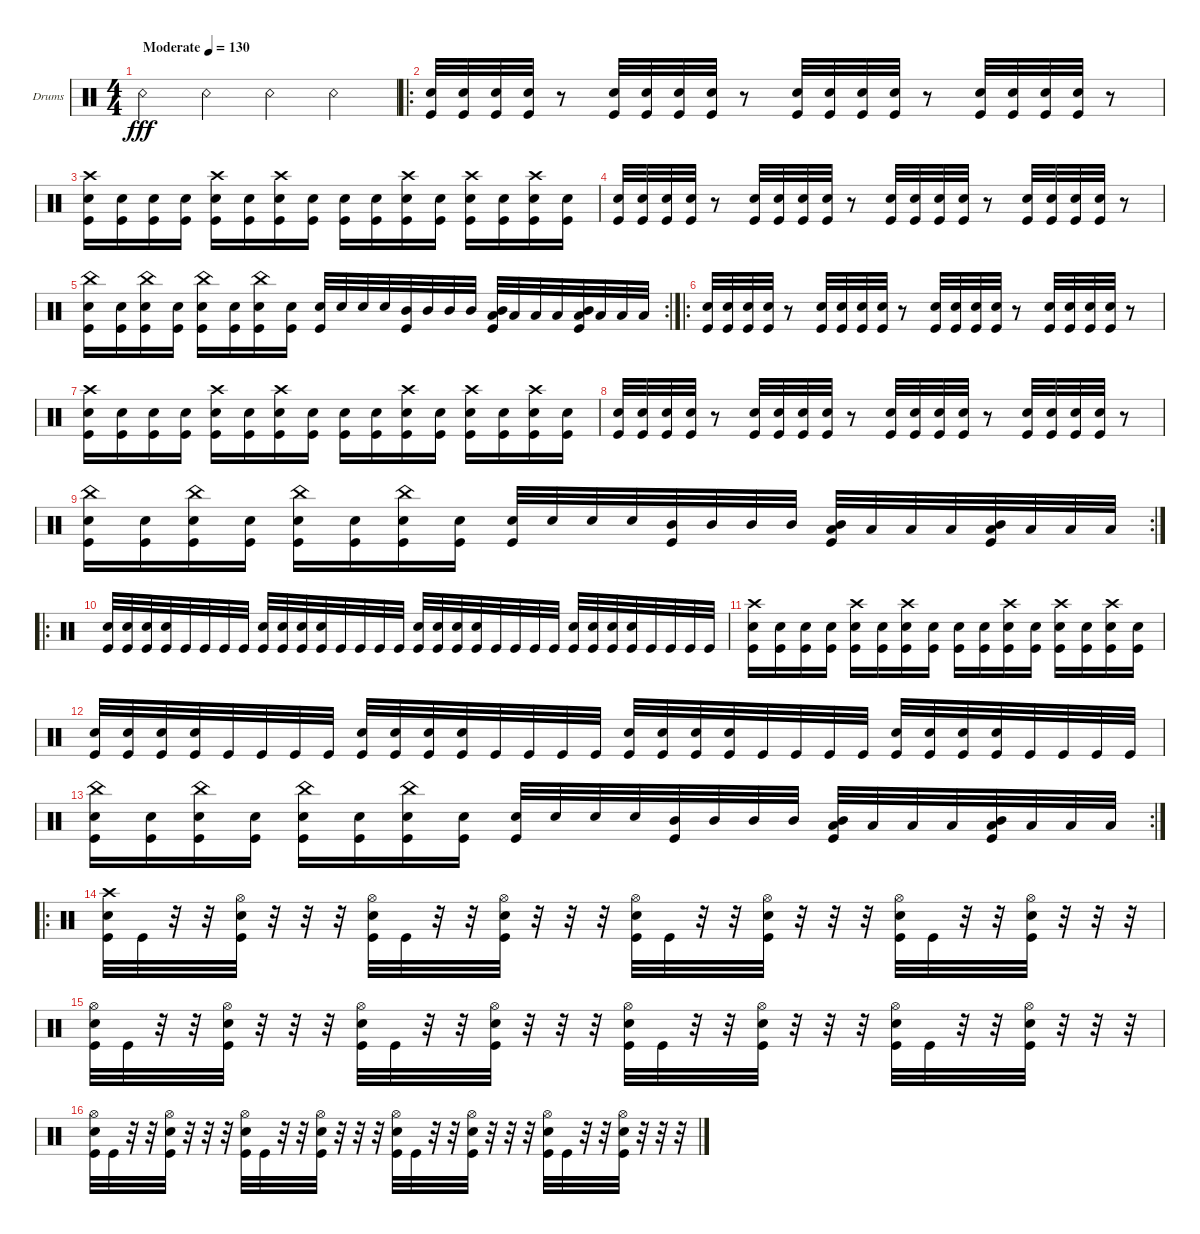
\bracketExtendMode groupsimilarinstruments
\firstSystemTrackNameOrientation horizontal
\otherSystemsTrackNameOrientation horizontal
\track ("Drumkit" "Drums") {instrument percussion}
\staff {score}
\articulation defaults
\ts (4 4)
\tempo (130 "Moderate")
\clef neutral
\ks c "Snare (rim shot)".4{dy fff} "Snare (rim shot)".4 "Snare (rim shot)".4 "Snare (rim shot)".4
|
\ro
("Snare (hit) 2" "Kick (hit)").32 ("Snare (hit) 2" "Kick (hit)").32 ("Snare (hit) 2" "Kick (hit)").32 ("Snare (hit) 2" "Kick (hit)").32 r.8 ("Snare (hit) 2" "Kick (hit)").32 ("Snare (hit) 2" "Kick (hit)").32 ("Snare (hit) 2" "Kick (hit)").32 ("Snare (hit) 2" "Kick (hit)").32 r.8 ("Snare (hit) 2" "Kick (hit)").32 ("Snare (hit) 2" "Kick (hit)").32 ("Snare (hit) 2" "Kick (hit)").32 ("Snare (hit) 2" "Kick (hit)").32 r.8 ("Snare (hit) 2" "Kick (hit)").32 ("Snare (hit) 2" "Kick (hit)").32 ("Snare (hit) 2" "Kick (hit)").32 ("Snare (hit) 2" "Kick (hit)").32 r.8 |
("Snare (hit) 2" "Kick (hit)" "Crash high (hit)").16 ("Snare (hit) 2" "Kick (hit)").16 ("Snare (hit) 2" "Kick (hit)").16 ("Snare (hit) 2" "Kick (hit)").16 ("Snare (hit) 2" "Kick (hit)" "Crash high (hit)").16 ("Snare (hit) 2" "Kick (hit)").16 ("Snare (hit) 2" "Kick (hit)" "Crash high (hit)").16 ("Snare (hit) 2" "Kick (hit)").16 ("Snare (hit) 2" "Kick (hit)").16 ("Snare (hit) 2" "Kick (hit)").16 ("Snare (hit) 2" "Kick (hit)" "Crash high (hit)").16 ("Snare (hit) 2" "Kick (hit)").16 ("Snare (hit) 2" "Kick (hit)" "Crash high (hit)").16 ("Snare (hit) 2" "Kick (hit)").16 ("Snare (hit) 2" "Kick (hit)" "Crash high (hit)").16 ("Snare (hit) 2" "Kick (hit)").16 |
("Snare (hit) 2" "Kick (hit)").32 ("Snare (hit) 2" "Kick (hit)").32 ("Snare (hit) 2" "Kick (hit)").32 ("Snare (hit) 2" "Kick (hit)").32 r.8 ("Snare (hit) 2" "Kick (hit)").32 ("Snare (hit) 2" "Kick (hit)").32 ("Snare (hit) 2" "Kick (hit)").32 ("Snare (hit) 2" "Kick (hit)").32 r.8 ("Snare (hit) 2" "Kick (hit)").32 ("Snare (hit) 2" "Kick (hit)").32 ("Snare (hit) 2" "Kick (hit)").32 ("Snare (hit) 2" "Kick (hit)").32 r.8 ("Snare (hit) 2" "Kick (hit)").32 ("Snare (hit) 2" "Kick (hit)").32 ("Snare (hit) 2" "Kick (hit)").32 ("Snare (hit) 2" "Kick (hit)").32 r.8 |
\rc 2
("Snare (hit) 2" "Kick (hit)" "China (hit)").16 ("Snare (hit) 2" "Kick (hit)").16 ("Snare (hit) 2" "Kick (hit)" "China (hit)").16 ("Snare (hit) 2" "Kick (hit)").16 ("Snare (hit) 2" "Kick (hit)" "China (hit)").16 ("Snare (hit) 2" "Kick (hit)").16 ("Snare (hit) 2" "Kick (hit)" "China (hit)").16 ("Snare (hit) 2" "Kick (hit)").16 ("Kick (hit)" "Snare (hit) 2").32 "Snare (hit) 2".32 "Snare (hit) 2".32 "Snare (hit) 2".32 ("Kick (hit)" "Mid Tom (hit)").32 "Mid Tom (hit)".32 "Mid Tom (hit)".32 "Mid Tom (hit)".32 ("Kick (hit)" "Mid Tom (hit)" "Low Tom (hit)").32 "Low Tom (hit)".32 "Low Tom (hit)".32 "Low Tom (hit)".32 ("Kick (hit)" "Mid Tom (hit)" "Low Tom (hit)").32 "Low Tom (hit)".32 "Low Tom (hit)".32 "Low Tom (hit)".32 |
\ro
("Snare (hit) 2" "Kick (hit)").32 ("Snare (hit) 2" "Kick (hit)").32 ("Snare (hit) 2" "Kick (hit)").32 ("Snare (hit) 2" "Kick (hit)").32 r.8 ("Snare (hit) 2" "Kick (hit)").32 ("Snare (hit) 2" "Kick (hit)").32 ("Snare (hit) 2" "Kick (hit)").32 ("Snare (hit) 2" "Kick (hit)").32 r.8 ("Snare (hit) 2" "Kick (hit)").32 ("Snare (hit) 2" "Kick (hit)").32 ("Snare (hit) 2" "Kick (hit)").32 ("Snare (hit) 2" "Kick (hit)").32 r.8 ("Snare (hit) 2" "Kick (hit)").32 ("Snare (hit) 2" "Kick (hit)").32 ("Snare (hit) 2" "Kick (hit)").32 ("Snare (hit) 2" "Kick (hit)").32 r.8 |
("Snare (hit) 2" "Kick (hit)" "Crash high (hit)").16 ("Snare (hit) 2" "Kick (hit)").16 ("Snare (hit) 2" "Kick (hit)").16 ("Snare (hit) 2" "Kick (hit)").16 ("Snare (hit) 2" "Kick (hit)" "Crash high (hit)").16 ("Snare (hit) 2" "Kick (hit)").16 ("Snare (hit) 2" "Kick (hit)" "Crash high (hit)").16 ("Snare (hit) 2" "Kick (hit)").16 ("Snare (hit) 2" "Kick (hit)").16 ("Snare (hit) 2" "Kick (hit)").16 ("Snare (hit) 2" "Kick (hit)" "Crash high (hit)").16 ("Snare (hit) 2" "Kick (hit)").16 ("Snare (hit) 2" "Kick (hit)" "Crash high (hit)").16 ("Snare (hit) 2" "Kick (hit)").16 ("Snare (hit) 2" "Kick (hit)" "Crash high (hit)").16 ("Snare (hit) 2" "Kick (hit)").16 |
("Snare (hit) 2" "Kick (hit)").32 ("Snare (hit) 2" "Kick (hit)").32 ("Snare (hit) 2" "Kick (hit)").32 ("Snare (hit) 2" "Kick (hit)").32 r.8 ("Snare (hit) 2" "Kick (hit)").32 ("Snare (hit) 2" "Kick (hit)").32 ("Snare (hit) 2" "Kick (hit)").32 ("Snare (hit) 2" "Kick (hit)").32 r.8 ("Snare (hit) 2" "Kick (hit)").32 ("Snare (hit) 2" "Kick (hit)").32 ("Snare (hit) 2" "Kick (hit)").32 ("Snare (hit) 2" "Kick (hit)").32 r.8 ("Snare (hit) 2" "Kick (hit)").32 ("Snare (hit) 2" "Kick (hit)").32 ("Snare (hit) 2" "Kick (hit)").32 ("Snare (hit) 2" "Kick (hit)").32 r.8 |
\rc 2
("Snare (hit) 2" "Kick (hit)" "China (hit)").16 ("Snare (hit) 2" "Kick (hit)").16 ("Snare (hit) 2" "Kick (hit)" "China (hit)").16 ("Snare (hit) 2" "Kick (hit)").16 ("Snare (hit) 2" "Kick (hit)" "China (hit)").16 ("Snare (hit) 2" "Kick (hit)").16 ("Snare (hit) 2" "Kick (hit)" "China (hit)").16 ("Snare (hit) 2" "Kick (hit)").16 ("Kick (hit)" "Snare (hit) 2").32 "Snare (hit) 2".32 "Snare (hit) 2".32 "Snare (hit) 2".32 ("Kick (hit)" "Mid Tom (hit)").32 "Mid Tom (hit)".32 "Mid Tom (hit)".32 "Mid Tom (hit)".32 ("Kick (hit)" "Mid Tom (hit)" "Low Tom (hit)").32 "Low Tom (hit)".32 "Low Tom (hit)".32 "Low Tom (hit)".32 ("Kick (hit)" "Mid Tom (hit)" "Low Tom (hit)").32 "Low Tom (hit)".32 "Low Tom (hit)".32 "Low Tom (hit)".32 |
\ro
\beaming (8 2 2 2 2)
\scale
0.502222 ("Snare (hit) 2" "Kick (hit)").32 ("Snare (hit) 2" "Kick (hit)").32 ("Snare (hit) 2" "Kick (hit)").32 ("Snare (hit) 2" "Kick (hit)").32 "Kick (hit)".32 "Kick (hit)".32 "Kick (hit)".32 "Kick (hit)".32 ("Snare (hit) 2" "Kick (hit)").32 ("Snare (hit) 2" "Kick (hit)").32 ("Snare (hit) 2" "Kick (hit)").32 ("Snare (hit) 2" "Kick (hit)").32 "Kick (hit)".32 "Kick (hit)".32 "Kick (hit)".32 "Kick (hit)".32 ("Snare (hit) 2" "Kick (hit)").32 ("Snare (hit) 2" "Kick (hit)").32 ("Snare (hit) 2" "Kick (hit)").32 ("Snare (hit) 2" "Kick (hit)").32 "Kick (hit)".32 "Kick (hit)".32 "Kick (hit)".32 "Kick (hit)".32 ("Snare (hit) 2" "Kick (hit)").32 ("Snare (hit) 2" "Kick (hit)").32 ("Snare (hit) 2" "Kick (hit)").32 ("Snare (hit) 2" "Kick (hit)").32 "Kick (hit)".32 "Kick (hit)".32 "Kick (hit)".32 "Kick (hit)".32 |
\scale
0.248889 ("Snare (hit) 2" "Kick (hit)" "Crash high (hit)").16 ("Snare (hit) 2" "Kick (hit)").16 ("Snare (hit) 2" "Kick (hit)").16 ("Snare (hit) 2" "Kick (hit)").16 ("Snare (hit) 2" "Kick (hit)" "Crash high (hit)").16 ("Snare (hit) 2" "Kick (hit)").16 ("Snare (hit) 2" "Kick (hit)" "Crash high (hit)").16 ("Snare (hit) 2" "Kick (hit)").16 ("Snare (hit) 2" "Kick (hit)").16 ("Snare (hit) 2" "Kick (hit)").16 ("Snare (hit) 2" "Kick (hit)" "Crash high (hit)").16 ("Snare (hit) 2" "Kick (hit)").16 ("Snare (hit) 2" "Kick (hit)" "Crash high (hit)").16 ("Snare (hit) 2" "Kick (hit)").16 ("Snare (hit) 2" "Kick (hit)" "Crash high (hit)").16 ("Snare (hit) 2" "Kick (hit)").16 |
\scale
0.248889 ("Snare (hit) 2" "Kick (hit)").32 ("Snare (hit) 2" "Kick (hit)").32 ("Snare (hit) 2" "Kick (hit)").32 ("Snare (hit) 2" "Kick (hit)").32 "Kick (hit)".32 "Kick (hit)".32 "Kick (hit)".32 "Kick (hit)".32 ("Snare (hit) 2" "Kick (hit)").32 ("Snare (hit) 2" "Kick (hit)").32 ("Snare (hit) 2" "Kick (hit)").32 ("Snare (hit) 2" "Kick (hit)").32 "Kick (hit)".32 "Kick (hit)".32 "Kick (hit)".32 "Kick (hit)".32 ("Snare (hit) 2" "Kick (hit)").32 ("Snare (hit) 2" "Kick (hit)").32 ("Snare (hit) 2" "Kick (hit)").32 ("Snare (hit) 2" "Kick (hit)").32 "Kick (hit)".32 "Kick (hit)".32 "Kick (hit)".32 "Kick (hit)".32 ("Snare (hit) 2" "Kick (hit)").32 ("Snare (hit) 2" "Kick (hit)").32 ("Snare (hit) 2" "Kick (hit)").32 ("Snare (hit) 2" "Kick (hit)").32 "Kick (hit)".32 "Kick (hit)".32 "Kick (hit)".32 "Kick (hit)".32 |
\rc 2
\scale
0.333333 ("Snare (hit) 2" "Kick (hit)" "China (hit)").16 ("Snare (hit) 2" "Kick (hit)").16 ("Snare (hit) 2" "Kick (hit)" "China (hit)").16 ("Snare (hit) 2" "Kick (hit)").16 ("Snare (hit) 2" "Kick (hit)" "China (hit)").16 ("Snare (hit) 2" "Kick (hit)").16 ("Snare (hit) 2" "Kick (hit)" "China (hit)").16 ("Snare (hit) 2" "Kick (hit)").16 ("Kick (hit)" "Snare (hit) 2").32 "Snare (hit) 2".32 "Snare (hit) 2".32 "Snare (hit) 2".32 ("Kick (hit)" "Mid Tom (hit)").32 "Mid Tom (hit)".32 "Mid Tom (hit)".32 "Mid Tom (hit)".32 ("Kick (hit)" "Mid Tom (hit)" "Low Tom (hit)").32 "Low Tom (hit)".32 "Low Tom (hit)".32 "Low Tom (hit)".32 ("Kick (hit)" "Mid Tom (hit)" "Low Tom (hit)").32 "Low Tom (hit)".32 "Low Tom (hit)".32 "Low Tom (hit)".32 |
\ro
\scale
0.365591 ("Snare (hit) 2" "Crash high (hit)" "Kick (hit)").32 "Kick (hit)".32 r.32 r.32 ("Hi-Hat (open)" "Snare (hit) 2" "Kick (hit)").32 r.32 r.32 r.32 ("Hi-Hat (open)" "Snare (hit) 2" "Kick (hit)").32 "Kick (hit)".32 r.32 r.32 ("Hi-Hat (open)" "Snare (hit) 2" "Kick (hit)").32 r.32 r.32 r.32 ("Hi-Hat (open)" "Snare (hit) 2" "Kick (hit)").32 "Kick (hit)".32 r.32 r.32 ("Hi-Hat (open)" "Snare (hit) 2" "Kick (hit)").32 r.32 r.32 r.32 ("Hi-Hat (open)" "Snare (hit) 2" "Kick (hit)").32 "Kick (hit)".32 r.32 r.32 ("Hi-Hat (open)" "Snare (hit) 2" "Kick (hit)").32 r.32 r.32 r.32 |
\scale
0.301075 ("Hi-Hat (open)" "Snare (hit) 2" "Kick (hit)").32 "Kick (hit)".32 r.32 r.32 ("Hi-Hat (open)" "Snare (hit) 2" "Kick (hit)").32 r.32 r.32 r.32 ("Hi-Hat (open)" "Snare (hit) 2" "Kick (hit)").32 "Kick (hit)".32 r.32 r.32 ("Hi-Hat (open)" "Snare (hit) 2" "Kick (hit)").32 r.32 r.32 r.32 ("Hi-Hat (open)" "Snare (hit) 2" "Kick (hit)").32 "Kick (hit)".32 r.32 r.32 ("Hi-Hat (open)" "Snare (hit) 2" "Kick (hit)").32 r.32 r.32 r.32 ("Hi-Hat (open)" "Snare (hit) 2" "Kick (hit)").32 "Kick (hit)".32 r.32 r.32 ("Hi-Hat (open)" "Snare (hit) 2" "Kick (hit)").32 r.32 r.32 r.32 |
\scale
0.333333 ("Hi-Hat (open)" "Snare (hit) 2" "Kick (hit)").32 "Kick (hit)".32 r.32 r.32 ("Hi-Hat (open)" "Snare (hit) 2" "Kick (hit)").32 r.32 r.32 r.32 ("Hi-Hat (open)" "Snare (hit) 2" "Kick (hit)").32 "Kick (hit)".32 r.32 r.32 ("Hi-Hat (open)" "Snare (hit) 2" "Kick (hit)").32 r.32 r.32 r.32 ("Hi-Hat (open)" "Snare (hit) 2" "Kick (hit)").32 "Kick (hit)".32 r.32 r.32 ("Hi-Hat (open)" "Snare (hit) 2" "Kick (hit)").32 r.32 r.32 r.32 ("Hi-Hat (open)" "Snare (hit) 2" "Kick (hit)").32 "Kick (hit)".32 r.32 r.32 ("Hi-Hat (open)" "Snare (hit) 2" "Kick (hit)").32 r.32 r.32 r.32
